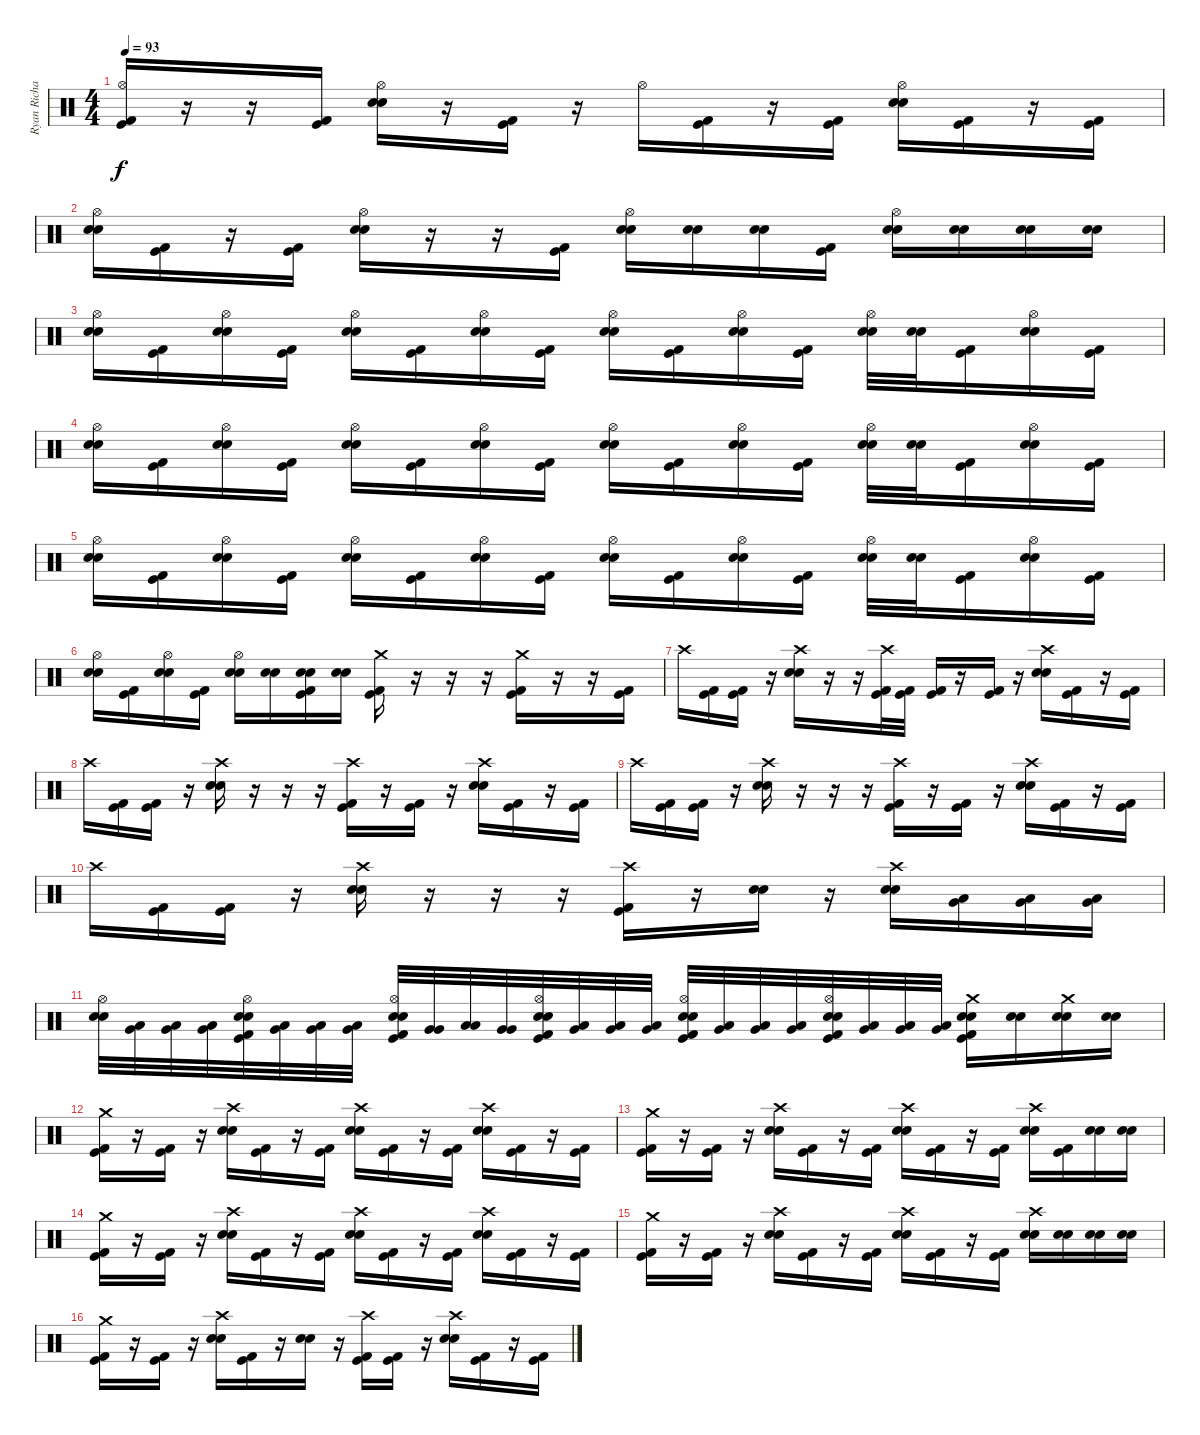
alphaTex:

\track ("Ryan Richards" "Ryan Richa") {instrument percussion}
\staff {score}
\articulation defaults
\ts (4 4)
\tempo 93
\clef neutral
\ks c
("Kick (hit)" "Hi-Hat (open)" "Kick (hit) 2").16{dy f} r.16 r.16 ("Kick (hit)" "Kick (hit) 2").16 ("Snare (hit) 2" "Hi-Hat (open)" "Electric Snare (hit)").16 r.16 ("Kick (hit)" "Kick (hit) 2").16 r.16 "Hi-Hat (open)".16 ("Kick (hit)" "Kick (hit) 2").16 r.16 ("Kick (hit)" "Kick (hit) 2").16 ("Snare (hit) 2" "Hi-Hat (open)" "Electric Snare (hit)").16 ("Kick (hit)" "Kick (hit) 2").16 r.16 ("Kick (hit)" "Kick (hit) 2").16 |
("Snare (hit) 2" "Hi-Hat (open)" "Electric Snare (hit)").16 ("Kick (hit)" "Kick (hit) 2").16 r.16 ("Kick (hit)" "Kick (hit) 2").16 ("Snare (hit) 2" "Hi-Hat (open)" "Electric Snare (hit)").16 r.16 r.16 ("Kick (hit)" "Kick (hit) 2").16 ("Snare (hit) 2" "Hi-Hat (open)" "Electric Snare (hit)").16 ("Snare (hit) 2" "Electric Snare (hit)").16 ("Snare (hit) 2" "Electric Snare (hit)").16 ("Kick (hit)" "Kick (hit) 2").16 ("Snare (hit) 2" "Hi-Hat (open)" "Electric Snare (hit)").16 ("Snare (hit) 2" "Electric Snare (hit)").16 ("Snare (hit) 2" "Electric Snare (hit)").16 ("Snare (hit) 2" "Electric Snare (hit)").16 |
("Snare (hit) 2" "Hi-Hat (open)" "Electric Snare (hit)").16 ("Kick (hit)" "Kick (hit) 2").16 ("Snare (hit) 2" "Hi-Hat (open)" "Electric Snare (hit)").16 ("Kick (hit)" "Kick (hit) 2").16 ("Snare (hit) 2" "Hi-Hat (open)" "Electric Snare (hit)").16 ("Kick (hit)" "Kick (hit) 2").16 ("Snare (hit) 2" "Hi-Hat (open)" "Electric Snare (hit)").16 ("Kick (hit)" "Kick (hit) 2").16 ("Snare (hit) 2" "Hi-Hat (open)" "Electric Snare (hit)").16 ("Kick (hit)" "Kick (hit) 2").16 ("Snare (hit) 2" "Hi-Hat (open)" "Electric Snare (hit)").16 ("Kick (hit)" "Kick (hit) 2").16 ("Snare (hit) 2" "Hi-Hat (open)" "Electric Snare (hit)").32 ("Snare (hit) 2" "Electric Snare (hit)").32 ("Kick (hit)" "Kick (hit) 2").16 ("Snare (hit) 2" "Hi-Hat (open)" "Electric Snare (hit)").16 ("Kick (hit)" "Kick (hit) 2").16 |
("Snare (hit) 2" "Hi-Hat (open)" "Electric Snare (hit)").16 ("Kick (hit)" "Kick (hit) 2").16 ("Snare (hit) 2" "Hi-Hat (open)" "Electric Snare (hit)").16 ("Kick (hit)" "Kick (hit) 2").16 ("Snare (hit) 2" "Hi-Hat (open)" "Electric Snare (hit)").16 ("Kick (hit)" "Kick (hit) 2").16 ("Snare (hit) 2" "Hi-Hat (open)" "Electric Snare (hit)").16 ("Kick (hit)" "Kick (hit) 2").16 ("Snare (hit) 2" "Hi-Hat (open)" "Electric Snare (hit)").16 ("Kick (hit)" "Kick (hit) 2").16 ("Snare (hit) 2" "Hi-Hat (open)" "Electric Snare (hit)").16 ("Kick (hit)" "Kick (hit) 2").16 ("Snare (hit) 2" "Hi-Hat (open)" "Electric Snare (hit)").32 ("Snare (hit) 2" "Electric Snare (hit)").32 ("Kick (hit)" "Kick (hit) 2").16 ("Snare (hit) 2" "Hi-Hat (open)" "Electric Snare (hit)").16 ("Kick (hit)" "Kick (hit) 2").16 |
("Snare (hit) 2" "Hi-Hat (open)" "Electric Snare (hit)").16 ("Kick (hit)" "Kick (hit) 2").16 ("Snare (hit) 2" "Hi-Hat (open)" "Electric Snare (hit)").16 ("Kick (hit)" "Kick (hit) 2").16 ("Snare (hit) 2" "Hi-Hat (open)" "Electric Snare (hit)").16 ("Kick (hit)" "Kick (hit) 2").16 ("Snare (hit) 2" "Hi-Hat (open)" "Electric Snare (hit)").16 ("Kick (hit)" "Kick (hit) 2").16 ("Snare (hit) 2" "Hi-Hat (open)" "Electric Snare (hit)").16 ("Kick (hit)" "Kick (hit) 2").16 ("Snare (hit) 2" "Hi-Hat (open)" "Electric Snare (hit)").16 ("Kick (hit)" "Kick (hit) 2").16 ("Snare (hit) 2" "Hi-Hat (open)" "Electric Snare (hit)").32 ("Snare (hit) 2" "Electric Snare (hit)").32 ("Kick (hit)" "Kick (hit) 2").16 ("Snare (hit) 2" "Hi-Hat (open)" "Electric Snare (hit)").16 ("Kick (hit)" "Kick (hit) 2").16 |
("Snare (hit) 2" "Hi-Hat (open)" "Electric Snare (hit)").16 ("Kick (hit)" "Kick (hit) 2").16 ("Snare (hit) 2" "Hi-Hat (open)" "Electric Snare (hit)").16 ("Kick (hit)" "Kick (hit) 2").16 ("Snare (hit) 2" "Hi-Hat (open)" "Electric Snare (hit)").16 ("Snare (hit) 2" "Electric Snare (hit)").16 ("Kick (hit)" "Snare (hit) 2" "Electric Snare (hit)" "Kick (hit) 2").16 ("Snare (hit) 2" "Electric Snare (hit)").16 ("Kick (hit)" "Crash medium (hit)" "Kick (hit) 2").16 r.16 r.16 r.16 ("Kick (hit)" "Crash medium (hit)" "Kick (hit) 2").16 r.16 r.16 ("Kick (hit)" "Kick (hit) 2").16 |
"Crash high (hit)".16 ("Kick (hit)" "Kick (hit) 2").16 ("Kick (hit)" "Kick (hit) 2").16 r.16 ("Snare (hit) 2" "Crash high (hit)" "Electric Snare (hit)").16 r.16 r.16 ("Kick (hit)" "Crash high (hit)" "Kick (hit) 2").32 ("Kick (hit)" "Kick (hit) 2").32 ("Kick (hit)" "Kick (hit) 2").16 r.16 ("Kick (hit)" "Kick (hit) 2").16 r.16 ("Snare (hit) 2" "Crash high (hit)" "Electric Snare (hit)").16 ("Kick (hit)" "Kick (hit) 2").16 r.16 ("Kick (hit)" "Kick (hit) 2").16 |
"Crash high (hit)".16 ("Kick (hit)" "Kick (hit) 2").16 ("Kick (hit)" "Kick (hit) 2").16 r.16 ("Snare (hit) 2" "Crash high (hit)" "Electric Snare (hit)").16 r.16 r.16 r.16 ("Kick (hit)" "Crash high (hit)" "Kick (hit) 2").16 r.16 ("Kick (hit)" "Kick (hit) 2").16 r.16 ("Snare (hit) 2" "Crash high (hit)" "Electric Snare (hit)").16 ("Kick (hit)" "Kick (hit) 2").16 r.16 ("Kick (hit)" "Kick (hit) 2").16 |
"Crash high (hit)".16 ("Kick (hit)" "Kick (hit) 2").16 ("Kick (hit)" "Kick (hit) 2").16 r.16 ("Snare (hit) 2" "Crash high (hit)" "Electric Snare (hit)").16 r.16 r.16 r.16 ("Kick (hit)" "Crash high (hit)" "Kick (hit) 2").16 r.16 ("Kick (hit)" "Kick (hit) 2").16 r.16 ("Snare (hit) 2" "Crash high (hit)" "Electric Snare (hit)").16 ("Kick (hit)" "Kick (hit) 2").16 r.16 ("Kick (hit)" "Kick (hit) 2").16 |
"Crash high (hit)".16 ("Kick (hit)" "Kick (hit) 2").16 ("Kick (hit)" "Kick (hit) 2").16 r.16 ("Snare (hit) 2" "Crash high (hit)" "Electric Snare (hit)").16 r.16 r.16 r.16 ("Kick (hit)" "Crash high (hit)" "Kick (hit) 2").16 r.16 ("Snare (hit) 2" "Electric Snare (hit)").16 r.16 ("Snare (hit) 2" "Crash high (hit)" "Electric Snare (hit)").16 ("Very Low Tom (hit)" "Low Floor Tom (hit)").16 ("Low Tom (hit)" "Very Low Tom (hit)").16 ("Very Low Tom (hit)" "Low Floor Tom (hit)").16 |
("Snare (hit) 2" "Hi-Hat (open)" "Electric Snare (hit)").32 ("Very Low Tom (hit)" "Low Floor Tom (hit)").32 ("Low Tom (hit)" "Very Low Tom (hit)").32 ("Very Low Tom (hit)" "Low Floor Tom (hit)").32 ("Kick (hit)" "Snare (hit) 2" "Hi-Hat (open)" "Electric Snare (hit)" "Kick (hit) 2").32 ("Very Low Tom (hit)" "Low Floor Tom (hit)").32 ("Low Tom (hit)" "Very Low Tom (hit)").32 ("Very Low Tom (hit)" "Low Floor Tom (hit)").32 ("Kick (hit)" "Snare (hit) 2" "Hi-Hat (open)" "Electric Snare (hit)" "Kick (hit) 2").32 ("Very Low Tom (hit)" "Very Low Tom (hit)").32 ("Low Tom (hit)" "Low Floor Tom (hit)").32 ("Very Low Tom (hit)" "Very Low Tom (hit)").32 ("Kick (hit)" "Snare (hit) 2" "Hi-Hat (open)" "Electric Snare (hit)" "Kick (hit) 2").32 ("Very Low Tom (hit)" "Low Floor Tom (hit)").32 ("Low Tom (hit)" "Very Low Tom (hit)").32 ("Very Low Tom (hit)" "Low Floor Tom (hit)").32 ("Kick (hit)" "Snare (hit) 2" "Hi-Hat (open)" "Electric Snare (hit)" "Kick (hit) 2").32 ("Very Low Tom (hit)" "Low Floor Tom (hit)").32 ("Low Tom (hit)" "Very Low Tom (hit)").32 ("Very Low Tom (hit)" "Low Floor Tom (hit)").32 ("Kick (hit)" "Snare (hit) 2" "Hi-Hat (open)" "Electric Snare (hit)" "Kick (hit) 2").32 ("Very Low Tom (hit)" "Low Floor Tom (hit)").32 ("Low Tom (hit)" "Very Low Tom (hit)").32 ("Very Low Tom (hit)" "Low Floor Tom (hit)").32 ("Kick (hit)" "Snare (hit) 2" "Crash medium (hit)" "Electric Snare (hit)" "Kick (hit) 2").16 ("Snare (hit) 2" "Electric Snare (hit)").16 ("Snare (hit) 2" "Crash medium (hit)" "Electric Snare (hit)").16 ("Snare (hit) 2" "Electric Snare (hit)").16 |
("Kick (hit)" "Crash medium (hit)" "Kick (hit) 2").16 r.16 ("Kick (hit)" "Kick (hit) 2").16 r.16 ("Snare (hit) 2" "Crash high (hit)" "Electric Snare (hit)").16 ("Kick (hit)" "Kick (hit) 2").16 r.16 ("Kick (hit)" "Kick (hit) 2").16 ("Snare (hit) 2" "Crash high (hit)" "Electric Snare (hit)").16 ("Kick (hit)" "Kick (hit) 2").16 r.16 ("Kick (hit)" "Kick (hit) 2").16 ("Snare (hit) 2" "Crash high (hit)" "Electric Snare (hit)").16 ("Kick (hit)" "Kick (hit) 2").16 r.16 ("Kick (hit)" "Kick (hit) 2").16 |
("Kick (hit)" "Crash medium (hit)" "Kick (hit) 2").16 r.16 ("Kick (hit)" "Kick (hit) 2").16 r.16 ("Snare (hit) 2" "Crash high (hit)" "Electric Snare (hit)").16 ("Kick (hit)" "Kick (hit) 2").16 r.16 ("Kick (hit)" "Kick (hit) 2").16 ("Snare (hit) 2" "Crash high (hit)" "Electric Snare (hit)").16 ("Kick (hit)" "Kick (hit) 2").16 r.16 ("Kick (hit)" "Kick (hit) 2").16 ("Snare (hit) 2" "Crash high (hit)" "Electric Snare (hit)").16 ("Kick (hit)" "Kick (hit) 2").16 ("Snare (hit) 2" "Electric Snare (hit)").16 ("Snare (hit) 2" "Electric Snare (hit)").16 |
("Kick (hit)" "Crash medium (hit)" "Kick (hit) 2").16 r.16 ("Kick (hit)" "Kick (hit) 2").16 r.16 ("Snare (hit) 2" "Crash high (hit)" "Electric Snare (hit)").16 ("Kick (hit)" "Kick (hit) 2").16 r.16 ("Kick (hit)" "Kick (hit) 2").16 ("Snare (hit) 2" "Crash high (hit)" "Electric Snare (hit)").16 ("Kick (hit)" "Kick (hit) 2").16 r.16 ("Kick (hit)" "Kick (hit) 2").16 ("Snare (hit) 2" "Crash high (hit)" "Electric Snare (hit)").16 ("Kick (hit)" "Kick (hit) 2").16 r.16 ("Kick (hit)" "Kick (hit) 2").16 |
("Kick (hit)" "Crash medium (hit)" "Kick (hit) 2").16 r.16 ("Kick (hit)" "Kick (hit) 2").16 r.16 ("Snare (hit) 2" "Crash high (hit)" "Electric Snare (hit)").16 ("Kick (hit)" "Kick (hit) 2").16 r.16 ("Kick (hit)" "Kick (hit) 2").16 ("Snare (hit) 2" "Crash high (hit)" "Electric Snare (hit)").16 ("Kick (hit)" "Kick (hit) 2").16 r.16 ("Kick (hit)" "Kick (hit) 2").16 ("Snare (hit) 2" "Crash high (hit)" "Electric Snare (hit)").16 ("Snare (hit) 2" "Electric Snare (hit)").16 ("Snare (hit) 2" "Electric Snare (hit)").16 ("Snare (hit) 2" "Electric Snare (hit)").16 |
("Kick (hit)" "Crash medium (hit)" "Kick (hit) 2").16 r.16 ("Kick (hit)" "Kick (hit) 2").16 r.16 ("Snare (hit) 2" "Crash high (hit)" "Electric Snare (hit)").16 ("Kick (hit)" "Kick (hit) 2").16 r.16 ("Snare (hit) 2" "Electric Snare (hit)").16 r.16 ("Kick (hit)" "Crash high (hit)" "Kick (hit) 2").16 ("Kick (hit)" "Kick (hit) 2").16 r.16 ("Snare (hit) 2" "Crash high (hit)" "Electric Snare (hit)").16 ("Kick (hit)" "Kick (hit) 2").16 r.16 ("Kick (hit)" "Kick (hit) 2").16
